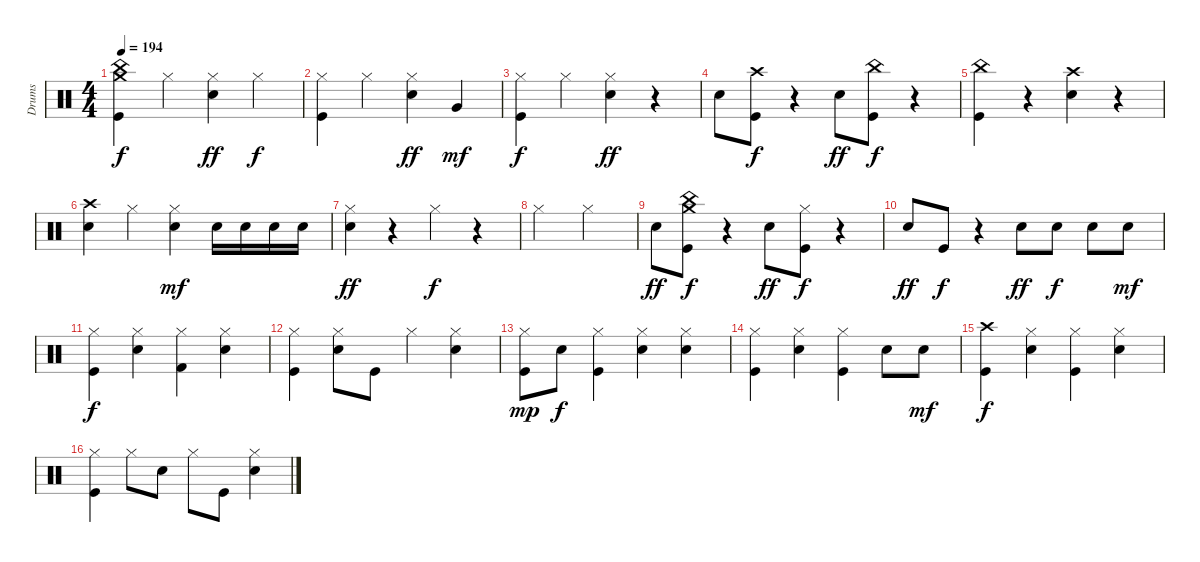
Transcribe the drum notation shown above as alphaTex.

\track ("Drums" "Drums") {instrument percussion}
\staff {score}
\articulation defaults
\ts (4 4)
\tempo 194
\clef neutral
\ks c
("Kick (hit)" "China (hit)" "Crash medium (hit)").4{dy f} "Hi-Hat (closed)".4 ("Snare (hit) 2" "Hi-Hat (closed)").4{dy ff} "Hi-Hat (closed)".4{dy f} |
("Kick (hit)" "Hi-Hat (closed)").4 "Hi-Hat (closed)".4 ("Snare (hit) 2" "Hi-Hat (closed)").4{dy ff} "Very Low Tom (hit)".4{dy mf} |
("Kick (hit)" "Hi-Hat (closed)").4{dy f} "Hi-Hat (closed)".4 ("Snare (hit) 2" "Hi-Hat (closed)").4{dy ff} r.4 |
"Snare (hit) 2".8 ("Kick (hit)" "Crash high (hit)").8{dy f} r.4 "Snare (hit) 2".8{dy ff} ("Kick (hit)" "China (hit)").8{dy f} r.4 |
("Kick (hit)" "China (hit)").4 r.4 ("Snare (hit) 2" "Crash high (hit)").4 r.4 |
("Snare (hit) 2" "Crash high (hit)").4 "Hi-Hat (closed)".4 ("Snare (hit) 2" "Hi-Hat (closed)").4{dy mf} "Snare (hit) 2".16 "Snare (hit) 2".16 "Snare (hit) 2".16 "Snare (hit) 2".16 |
("Snare (hit) 2" "Hi-Hat (closed)").4{dy ff} r.4 "Hi-Hat (closed)".4{dy f} r.4 |
"Hi-Hat (closed)".2 "Hi-Hat (closed)".2 |
"Snare (hit) 2".8{dy ff} ("Kick (hit)" "China (hit)" "Crash medium (hit)").8{dy f} r.4 "Snare (hit) 2".8{dy ff} ("Kick (hit)" "Hi-Hat (closed)").8{dy f} r.4 |
"Snare (hit) 2".8{dy ff} "Kick (hit)".8{dy f} r.4 "Snare (hit) 2".8{dy ff} "Snare (hit) 2".8{dy f} "Snare (hit) 2".8 "Snare (hit) 2".8{dy mf} |
("Kick (hit)" "Hi-Hat (closed)").4{dy f} ("Snare (hit) 2" "Hi-Hat (closed)").4 ("Kick (hit) 2" "Hi-Hat (closed)").4 ("Snare (hit) 2" "Hi-Hat (closed)").4 |
("Kick (hit)" "Hi-Hat (closed)").4 ("Snare (hit) 2" "Hi-Hat (closed)").8 "Kick (hit)".8 "Hi-Hat (closed)".4 ("Snare (hit) 2" "Hi-Hat (closed)").4 |
("Kick (hit)" "Hi-Hat (closed)").8{dy mp} "Snare (hit) 2".8{dy f} ("Kick (hit)" "Hi-Hat (closed)").4 ("Snare (hit) 2" "Hi-Hat (closed)").4 ("Snare (hit) 2" "Hi-Hat (closed)").4 |
("Kick (hit)" "Hi-Hat (closed)").4 ("Snare (hit) 2" "Hi-Hat (closed)").4 ("Kick (hit)" "Hi-Hat (closed)").4 "Snare (hit) 2".8 "Snare (hit) 2".8{dy mf} |
("Kick (hit)" "Crash high (hit)").4{dy f} ("Snare (hit) 2" "Hi-Hat (closed)").4 ("Kick (hit)" "Hi-Hat (closed)").4 ("Snare (hit) 2" "Hi-Hat (closed)").4 |
("Kick (hit)" "Hi-Hat (closed)").4 "Hi-Hat (closed)".8 "Snare (hit) 2".8 "Hi-Hat (closed)".8 "Kick (hit)".8 ("Snare (hit) 2" "Hi-Hat (closed)").4
